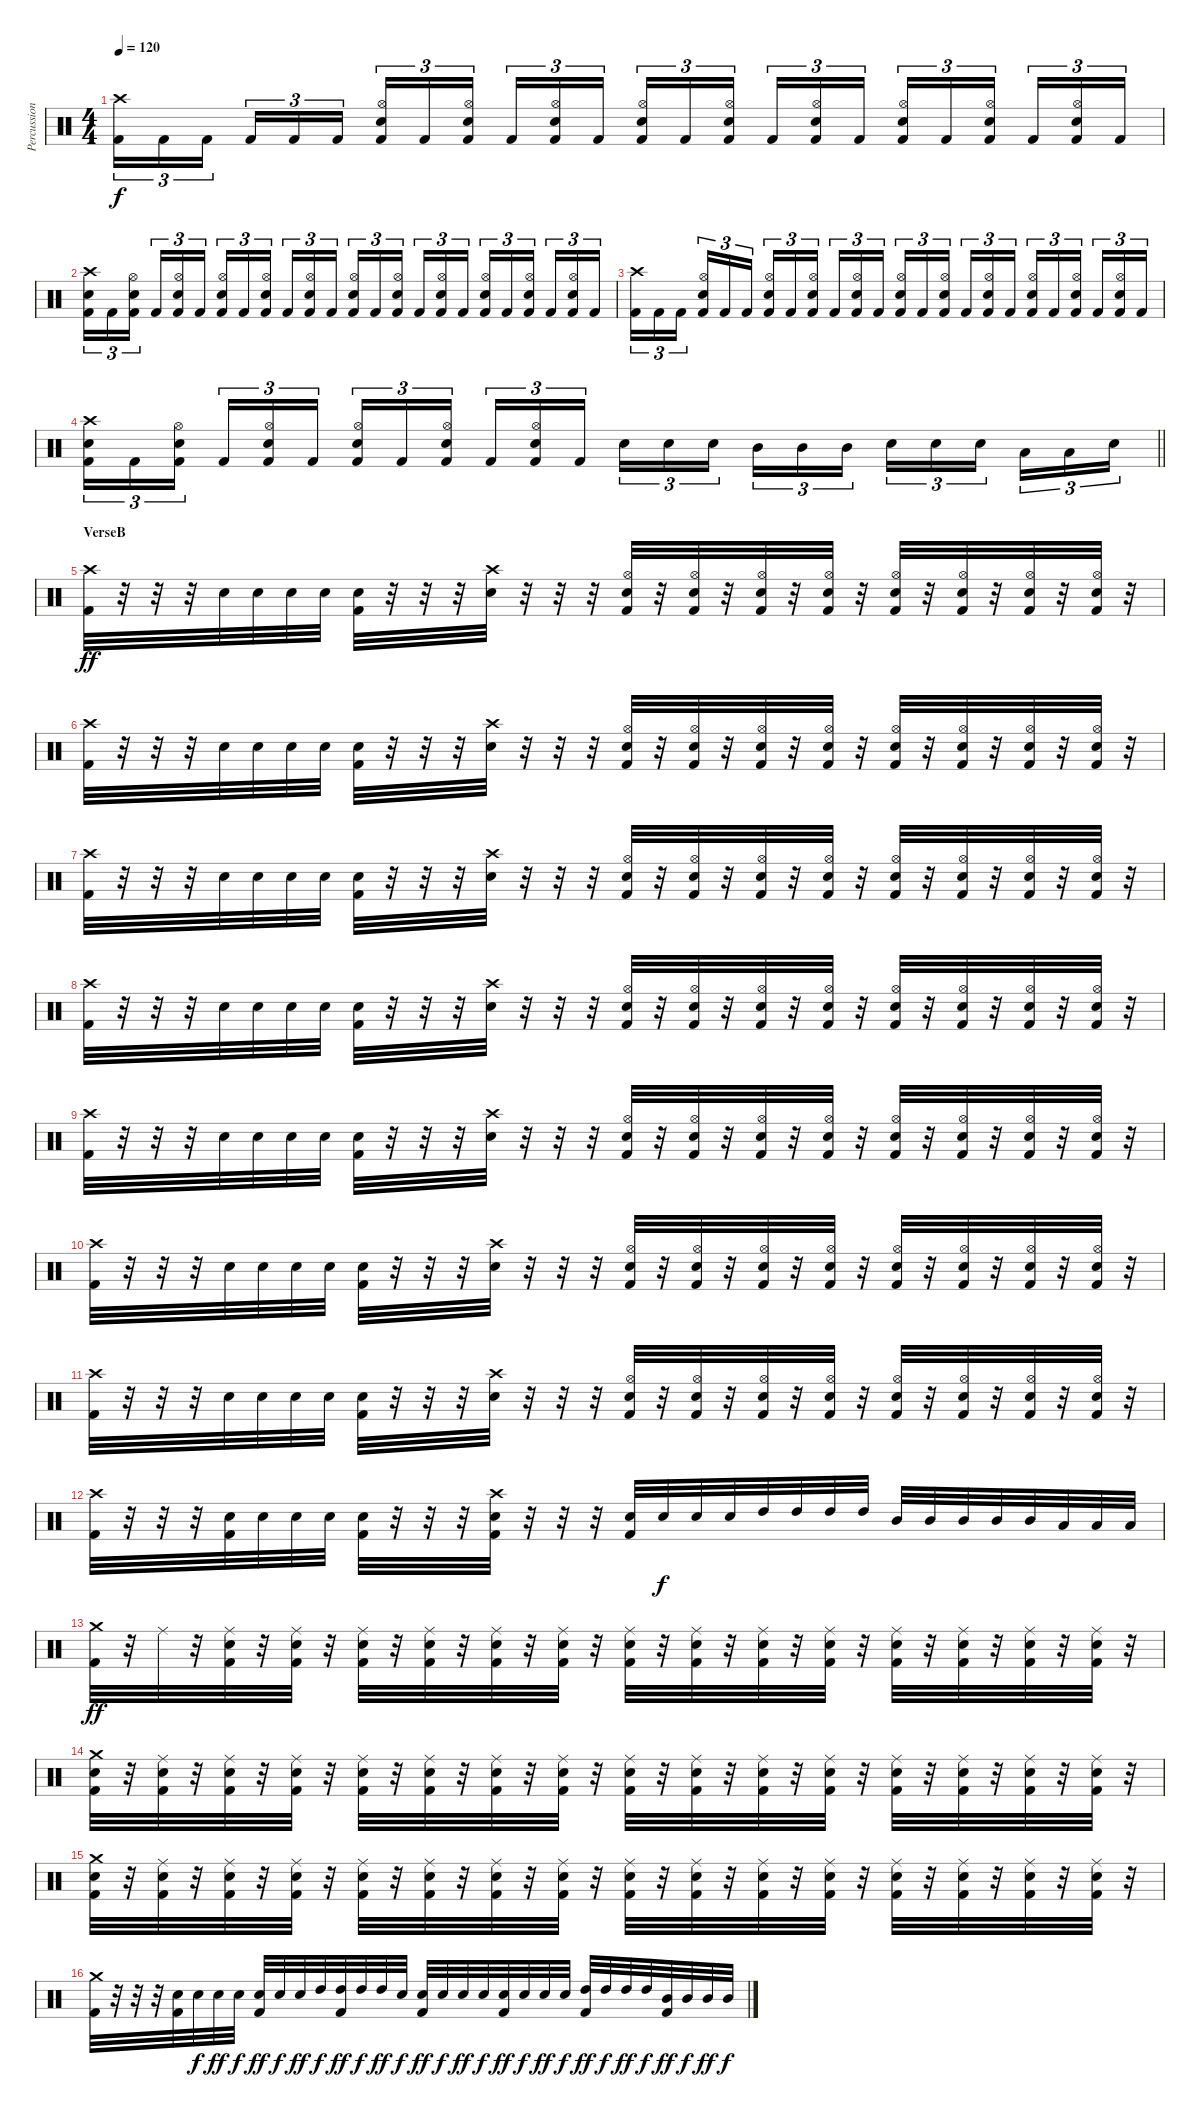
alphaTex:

\track ("Percussion" "Percussion") {instrument percussion}
\staff {score}
\articulation defaults
\ts (4 4)
\tempo 120
\clef neutral
\ks c
("Crash high (hit)" "Kick (hit) 2").16{tu (3 2) dy f} "Kick (hit) 2".16{tu (3 2)} "Kick (hit) 2".16{tu (3 2) beam splitsecondary} "Kick (hit) 2".16{tu (3 2)} "Kick (hit) 2".16{tu (3 2)} "Kick (hit) 2".16{tu (3 2)} ("Hi-Hat (open)" "Snare (hit) 2" "Kick (hit) 2").16{tu (3 2)} "Kick (hit) 2".16{tu (3 2)} ("Hi-Hat (open)" "Snare (hit) 2" "Kick (hit) 2").16{tu (3 2) beam splitsecondary} "Kick (hit) 2".16{tu (3 2)} ("Hi-Hat (open)" "Snare (hit) 2" "Kick (hit) 2").16{tu (3 2)} "Kick (hit) 2".16{tu (3 2)} ("Hi-Hat (open)" "Snare (hit) 2" "Kick (hit) 2").16{tu (3 2)} "Kick (hit) 2".16{tu (3 2)} ("Hi-Hat (open)" "Snare (hit) 2" "Kick (hit) 2").16{tu (3 2) beam splitsecondary} "Kick (hit) 2".16{tu (3 2)} ("Hi-Hat (open)" "Snare (hit) 2" "Kick (hit) 2").16{tu (3 2)} "Kick (hit) 2".16{tu (3 2)} ("Hi-Hat (open)" "Snare (hit) 2" "Kick (hit) 2").16{tu (3 2)} "Kick (hit) 2".16{tu (3 2)} ("Hi-Hat (open)" "Snare (hit) 2" "Kick (hit) 2").16{tu (3 2) beam splitsecondary} "Kick (hit) 2".16{tu (3 2)} ("Hi-Hat (open)" "Snare (hit) 2" "Kick (hit) 2").16{tu (3 2)} "Kick (hit) 2".16{tu (3 2)} |
("Crash high (hit)" "Snare (hit) 2" "Kick (hit) 2").16{tu (3 2)} "Kick (hit) 2".16{tu (3 2)} ("Hi-Hat (open)" "Snare (hit) 2" "Kick (hit) 2").16{tu (3 2) beam splitsecondary} "Kick (hit) 2".16{tu (3 2)} ("Hi-Hat (open)" "Snare (hit) 2" "Kick (hit) 2").16{tu (3 2)} "Kick (hit) 2".16{tu (3 2)} ("Hi-Hat (open)" "Snare (hit) 2" "Kick (hit) 2").16{tu (3 2)} "Kick (hit) 2".16{tu (3 2)} ("Hi-Hat (open)" "Snare (hit) 2" "Kick (hit) 2").16{tu (3 2) beam splitsecondary} "Kick (hit) 2".16{tu (3 2)} ("Hi-Hat (open)" "Snare (hit) 2" "Kick (hit) 2").16{tu (3 2)} "Kick (hit) 2".16{tu (3 2)} ("Hi-Hat (open)" "Snare (hit) 2" "Kick (hit) 2").16{tu (3 2)} "Kick (hit) 2".16{tu (3 2)} ("Hi-Hat (open)" "Snare (hit) 2" "Kick (hit) 2").16{tu (3 2) beam splitsecondary} "Kick (hit) 2".16{tu (3 2)} ("Hi-Hat (open)" "Snare (hit) 2" "Kick (hit) 2").16{tu (3 2)} "Kick (hit) 2".16{tu (3 2)} ("Hi-Hat (open)" "Snare (hit) 2" "Kick (hit) 2").16{tu (3 2)} "Kick (hit) 2".16{tu (3 2)} ("Hi-Hat (open)" "Snare (hit) 2" "Kick (hit) 2").16{tu (3 2) beam splitsecondary} "Kick (hit) 2".16{tu (3 2)} ("Hi-Hat (open)" "Snare (hit) 2" "Kick (hit) 2").16{tu (3 2)} "Kick (hit) 2".16{tu (3 2)} |
("Crash high (hit)" "Kick (hit) 2").16{tu (3 2)} "Kick (hit) 2".16{tu (3 2)} "Kick (hit) 2".16{tu (3 2) beam splitsecondary} ("Hi-Hat (open)" "Snare (hit) 2" "Kick (hit) 2").16{tu (3 2)} "Kick (hit) 2".16{tu (3 2)} "Kick (hit) 2".16{tu (3 2)} ("Hi-Hat (open)" "Snare (hit) 2" "Kick (hit) 2").16{tu (3 2)} "Kick (hit) 2".16{tu (3 2)} ("Hi-Hat (open)" "Snare (hit) 2" "Kick (hit) 2").16{tu (3 2) beam splitsecondary} "Kick (hit) 2".16{tu (3 2)} ("Hi-Hat (open)" "Snare (hit) 2" "Kick (hit) 2").16{tu (3 2)} "Kick (hit) 2".16{tu (3 2)} ("Hi-Hat (open)" "Snare (hit) 2" "Kick (hit) 2").16{tu (3 2)} "Kick (hit) 2".16{tu (3 2)} ("Hi-Hat (open)" "Snare (hit) 2" "Kick (hit) 2").16{tu (3 2) beam splitsecondary} "Kick (hit) 2".16{tu (3 2)} ("Hi-Hat (open)" "Snare (hit) 2" "Kick (hit) 2").16{tu (3 2)} "Kick (hit) 2".16{tu (3 2)} ("Hi-Hat (open)" "Snare (hit) 2" "Kick (hit) 2").16{tu (3 2)} "Kick (hit) 2".16{tu (3 2)} ("Hi-Hat (open)" "Snare (hit) 2" "Kick (hit) 2").16{tu (3 2) beam splitsecondary} "Kick (hit) 2".16{tu (3 2)} ("Hi-Hat (open)" "Snare (hit) 2" "Kick (hit) 2").16{tu (3 2)} "Kick (hit) 2".16{tu (3 2)} |
\barLineRight lightlight
("Crash high (hit)" "Snare (hit) 2" "Kick (hit) 2").16{tu (3 2)} "Kick (hit) 2".16{tu (3 2)} ("Hi-Hat (open)" "Snare (hit) 2" "Kick (hit) 2").16{tu (3 2) beam splitsecondary} "Kick (hit) 2".16{tu (3 2)} ("Hi-Hat (open)" "Snare (hit) 2" "Kick (hit) 2").16{tu (3 2)} "Kick (hit) 2".16{tu (3 2)} ("Hi-Hat (open)" "Snare (hit) 2" "Kick (hit) 2").16{tu (3 2)} "Kick (hit) 2".16{tu (3 2)} ("Hi-Hat (open)" "Snare (hit) 2" "Kick (hit) 2").16{tu (3 2) beam splitsecondary} "Kick (hit) 2".16{tu (3 2)} ("Hi-Hat (open)" "Snare (hit) 2" "Kick (hit) 2").16{tu (3 2)} "Kick (hit) 2".16{tu (3 2)} "Snare (hit) 2".16{tu (3 2)} "Snare (hit) 2".16{tu (3 2)} "Snare (hit) 2".16{tu (3 2) beam splitsecondary} "Mid Tom (hit)".16{tu (3 2)} "Mid Tom (hit)".16{tu (3 2)} "Mid Tom (hit)".16{tu (3 2)} "Snare (hit) 2".16{tu (3 2)} "Snare (hit) 2".16{tu (3 2)} "Snare (hit) 2".16{tu (3 2) beam splitsecondary} "Low Tom (hit)".16{tu (3 2)} "Low Tom (hit)".16{tu (3 2)} "Snare (hit) 2".16{tu (3 2)} |
\section ("" "VerseB")
("Crash high (hit)" "Kick (hit) 2").32{dy ff} r.32 r.32 r.32 "Snare (hit) 2".32 "Snare (hit) 2".32 "Snare (hit) 2".32 "Snare (hit) 2".32 ("Snare (hit) 2" "Kick (hit) 2").32 r.32 r.32 r.32 ("Crash high (hit)" "Snare (hit) 2").32 r.32 r.32 r.32 ("Hi-Hat (open)" "Snare (hit) 2" "Kick (hit) 2").32 r.32 ("Hi-Hat (open)" "Snare (hit) 2" "Kick (hit) 2").32 r.32 ("Hi-Hat (open)" "Snare (hit) 2" "Kick (hit) 2").32 r.32 ("Hi-Hat (open)" "Snare (hit) 2" "Kick (hit) 2").32 r.32 ("Hi-Hat (open)" "Snare (hit) 2" "Kick (hit) 2").32 r.32 ("Hi-Hat (open)" "Snare (hit) 2" "Kick (hit) 2").32 r.32 ("Hi-Hat (open)" "Snare (hit) 2" "Kick (hit) 2").32 r.32 ("Hi-Hat (open)" "Snare (hit) 2" "Kick (hit) 2").32 r.32 |
("Crash high (hit)" "Kick (hit) 2").32 r.32 r.32 r.32 "Snare (hit) 2".32 "Snare (hit) 2".32 "Snare (hit) 2".32 "Snare (hit) 2".32 ("Snare (hit) 2" "Kick (hit) 2").32 r.32 r.32 r.32 ("Crash high (hit)" "Snare (hit) 2").32 r.32 r.32 r.32 ("Hi-Hat (open)" "Snare (hit) 2" "Kick (hit) 2").32 r.32 ("Hi-Hat (open)" "Snare (hit) 2" "Kick (hit) 2").32 r.32 ("Hi-Hat (open)" "Snare (hit) 2" "Kick (hit) 2").32 r.32 ("Hi-Hat (open)" "Snare (hit) 2" "Kick (hit) 2").32 r.32 ("Hi-Hat (open)" "Snare (hit) 2" "Kick (hit) 2").32 r.32 ("Hi-Hat (open)" "Snare (hit) 2" "Kick (hit) 2").32 r.32 ("Hi-Hat (open)" "Snare (hit) 2" "Kick (hit) 2").32 r.32 ("Hi-Hat (open)" "Snare (hit) 2" "Kick (hit) 2").32 r.32 |
("Crash high (hit)" "Kick (hit) 2").32 r.32 r.32 r.32 "Snare (hit) 2".32 "Snare (hit) 2".32 "Snare (hit) 2".32 "Snare (hit) 2".32 ("Snare (hit) 2" "Kick (hit) 2").32 r.32 r.32 r.32 ("Crash high (hit)" "Snare (hit) 2").32 r.32 r.32 r.32 ("Hi-Hat (open)" "Snare (hit) 2" "Kick (hit) 2").32 r.32 ("Hi-Hat (open)" "Snare (hit) 2" "Kick (hit) 2").32 r.32 ("Hi-Hat (open)" "Snare (hit) 2" "Kick (hit) 2").32 r.32 ("Hi-Hat (open)" "Snare (hit) 2" "Kick (hit) 2").32 r.32 ("Hi-Hat (open)" "Snare (hit) 2" "Kick (hit) 2").32 r.32 ("Hi-Hat (open)" "Snare (hit) 2" "Kick (hit) 2").32 r.32 ("Hi-Hat (open)" "Snare (hit) 2" "Kick (hit) 2").32 r.32 ("Hi-Hat (open)" "Snare (hit) 2" "Kick (hit) 2").32 r.32 |
("Crash high (hit)" "Kick (hit) 2").32 r.32 r.32 r.32 "Snare (hit) 2".32 "Snare (hit) 2".32 "Snare (hit) 2".32 "Snare (hit) 2".32 ("Snare (hit) 2" "Kick (hit) 2").32 r.32 r.32 r.32 ("Crash high (hit)" "Snare (hit) 2").32 r.32 r.32 r.32 ("Hi-Hat (open)" "Snare (hit) 2" "Kick (hit) 2").32 r.32 ("Hi-Hat (open)" "Snare (hit) 2" "Kick (hit) 2").32 r.32 ("Hi-Hat (open)" "Snare (hit) 2" "Kick (hit) 2").32 r.32 ("Hi-Hat (open)" "Snare (hit) 2" "Kick (hit) 2").32 r.32 ("Hi-Hat (open)" "Snare (hit) 2" "Kick (hit) 2").32 r.32 ("Hi-Hat (open)" "Snare (hit) 2" "Kick (hit) 2").32 r.32 ("Hi-Hat (open)" "Snare (hit) 2" "Kick (hit) 2").32 r.32 ("Hi-Hat (open)" "Snare (hit) 2" "Kick (hit) 2").32 r.32 |
("Crash high (hit)" "Kick (hit) 2").32 r.32 r.32 r.32 "Snare (hit) 2".32 "Snare (hit) 2".32 "Snare (hit) 2".32 "Snare (hit) 2".32 ("Snare (hit) 2" "Kick (hit) 2").32 r.32 r.32 r.32 ("Crash high (hit)" "Snare (hit) 2").32 r.32 r.32 r.32 ("Hi-Hat (open)" "Snare (hit) 2" "Kick (hit) 2").32 r.32 ("Hi-Hat (open)" "Snare (hit) 2" "Kick (hit) 2").32 r.32 ("Hi-Hat (open)" "Snare (hit) 2" "Kick (hit) 2").32 r.32 ("Hi-Hat (open)" "Snare (hit) 2" "Kick (hit) 2").32 r.32 ("Hi-Hat (open)" "Snare (hit) 2" "Kick (hit) 2").32 r.32 ("Hi-Hat (open)" "Snare (hit) 2" "Kick (hit) 2").32 r.32 ("Hi-Hat (open)" "Snare (hit) 2" "Kick (hit) 2").32 r.32 ("Hi-Hat (open)" "Snare (hit) 2" "Kick (hit) 2").32 r.32 |
("Crash high (hit)" "Kick (hit) 2").32 r.32 r.32 r.32 "Snare (hit) 2".32 "Snare (hit) 2".32 "Snare (hit) 2".32 "Snare (hit) 2".32 ("Snare (hit) 2" "Kick (hit) 2").32 r.32 r.32 r.32 ("Crash high (hit)" "Snare (hit) 2").32 r.32 r.32 r.32 ("Hi-Hat (open)" "Snare (hit) 2" "Kick (hit) 2").32 r.32 ("Hi-Hat (open)" "Snare (hit) 2" "Kick (hit) 2").32 r.32 ("Hi-Hat (open)" "Snare (hit) 2" "Kick (hit) 2").32 r.32 ("Hi-Hat (open)" "Snare (hit) 2" "Kick (hit) 2").32 r.32 ("Hi-Hat (open)" "Snare (hit) 2" "Kick (hit) 2").32 r.32 ("Hi-Hat (open)" "Snare (hit) 2" "Kick (hit) 2").32 r.32 ("Hi-Hat (open)" "Snare (hit) 2" "Kick (hit) 2").32 r.32 ("Hi-Hat (open)" "Snare (hit) 2" "Kick (hit) 2").32 r.32 |
("Crash high (hit)" "Kick (hit) 2").32 r.32 r.32 r.32 "Snare (hit) 2".32 "Snare (hit) 2".32 "Snare (hit) 2".32 "Snare (hit) 2".32 ("Snare (hit) 2" "Kick (hit) 2").32 r.32 r.32 r.32 ("Crash high (hit)" "Snare (hit) 2").32 r.32 r.32 r.32 ("Hi-Hat (open)" "Snare (hit) 2" "Kick (hit) 2").32 r.32 ("Hi-Hat (open)" "Snare (hit) 2" "Kick (hit) 2").32 r.32 ("Hi-Hat (open)" "Snare (hit) 2" "Kick (hit) 2").32 r.32 ("Hi-Hat (open)" "Snare (hit) 2" "Kick (hit) 2").32 r.32 ("Hi-Hat (open)" "Snare (hit) 2" "Kick (hit) 2").32 r.32 ("Hi-Hat (open)" "Snare (hit) 2" "Kick (hit) 2").32 r.32 ("Hi-Hat (open)" "Snare (hit) 2" "Kick (hit) 2").32 r.32 ("Hi-Hat (open)" "Snare (hit) 2" "Kick (hit) 2").32 r.32 |
("Crash high (hit)" "Kick (hit) 2").32 r.32 r.32 r.32 ("Snare (hit) 2" "Kick (hit) 2").32 "Snare (hit) 2".32 "Snare (hit) 2".32 "Snare (hit) 2".32 ("Snare (hit) 2" "Kick (hit) 2").32 r.32 r.32 r.32 ("Crash high (hit)" "Snare (hit) 2" "Kick (hit) 2").32 r.32 r.32 r.32 ("Snare (hit) 2" "Kick (hit) 2").32 "Snare (hit) 2".32{dy f} "Snare (hit) 2".32 "Snare (hit) 2".32 "High Tom (hit)".32 "High Tom (hit)".32 "High Tom (hit)".32 "High Tom (hit)".32 "Mid Tom (hit)".32 "Mid Tom (hit)".32 "Mid Tom (hit)".32 "Mid Tom (hit)".32 "Mid Tom (hit)".32 "Low Tom (hit)".32 "Low Tom (hit)".32 "Low Tom (hit)".32 |
("Crash medium (hit)" "Kick (hit) 2").32{dy ff} r.32 "Ride (middle)".32 r.32 ("Ride (middle)" "Snare (hit) 2" "Kick (hit) 2").32 r.32 ("Ride (middle)" "Snare (hit) 2" "Kick (hit) 2").32 r.32 ("Ride (middle)" "Snare (hit) 2" "Kick (hit) 2").32 r.32 ("Ride (middle)" "Snare (hit) 2" "Kick (hit) 2").32 r.32 ("Ride (middle)" "Snare (hit) 2" "Kick (hit) 2").32 r.32 ("Ride (middle)" "Snare (hit) 2" "Kick (hit) 2").32 r.32 ("Ride (middle)" "Snare (hit) 2" "Kick (hit) 2").32 r.32 ("Ride (middle)" "Snare (hit) 2" "Kick (hit) 2").32 r.32 ("Ride (middle)" "Snare (hit) 2" "Kick (hit) 2").32 r.32 ("Ride (middle)" "Snare (hit) 2" "Kick (hit) 2").32 r.32 ("Ride (middle)" "Snare (hit) 2" "Kick (hit) 2").32 r.32 ("Ride (middle)" "Snare (hit) 2" "Kick (hit) 2").32 r.32 ("Ride (middle)" "Snare (hit) 2" "Kick (hit) 2").32 r.32 ("Ride (middle)" "Snare (hit) 2" "Kick (hit) 2").32 r.32 |
("Crash medium (hit)" "Snare (hit) 2" "Kick (hit) 2").32 r.32 ("Ride (middle)" "Snare (hit) 2" "Kick (hit) 2").32 r.32 ("Ride (middle)" "Snare (hit) 2" "Kick (hit) 2").32 r.32 ("Ride (middle)" "Snare (hit) 2" "Kick (hit) 2").32 r.32 ("Ride (middle)" "Snare (hit) 2" "Kick (hit) 2").32 r.32 ("Ride (middle)" "Snare (hit) 2" "Kick (hit) 2").32 r.32 ("Ride (middle)" "Snare (hit) 2" "Kick (hit) 2").32 r.32 ("Ride (middle)" "Snare (hit) 2" "Kick (hit) 2").32 r.32 ("Ride (middle)" "Snare (hit) 2" "Kick (hit) 2").32 r.32 ("Ride (middle)" "Snare (hit) 2" "Kick (hit) 2").32 r.32 ("Ride (middle)" "Snare (hit) 2" "Kick (hit) 2").32 r.32 ("Ride (middle)" "Snare (hit) 2" "Kick (hit) 2").32 r.32 ("Ride (middle)" "Snare (hit) 2" "Kick (hit) 2").32 r.32 ("Ride (middle)" "Snare (hit) 2" "Kick (hit) 2").32 r.32 ("Ride (middle)" "Snare (hit) 2" "Kick (hit) 2").32 r.32 ("Ride (middle)" "Snare (hit) 2" "Kick (hit) 2").32 r.32 |
("Crash medium (hit)" "Snare (hit) 2" "Kick (hit) 2").32 r.32 ("Ride (middle)" "Snare (hit) 2" "Kick (hit) 2").32 r.32 ("Ride (middle)" "Snare (hit) 2" "Kick (hit) 2").32 r.32 ("Ride (middle)" "Snare (hit) 2" "Kick (hit) 2").32 r.32 ("Ride (middle)" "Snare (hit) 2" "Kick (hit) 2").32 r.32 ("Ride (middle)" "Snare (hit) 2" "Kick (hit) 2").32 r.32 ("Ride (middle)" "Snare (hit) 2" "Kick (hit) 2").32 r.32 ("Ride (middle)" "Snare (hit) 2" "Kick (hit) 2").32 r.32 ("Ride (middle)" "Snare (hit) 2" "Kick (hit) 2").32 r.32 ("Ride (middle)" "Snare (hit) 2" "Kick (hit) 2").32 r.32 ("Ride (middle)" "Snare (hit) 2" "Kick (hit) 2").32 r.32 ("Ride (middle)" "Snare (hit) 2" "Kick (hit) 2").32 r.32 ("Ride (middle)" "Snare (hit) 2" "Kick (hit) 2").32 r.32 ("Ride (middle)" "Snare (hit) 2" "Kick (hit) 2").32 r.32 ("Ride (middle)" "Snare (hit) 2" "Kick (hit) 2").32 r.32 ("Ride (middle)" "Snare (hit) 2" "Kick (hit) 2").32 r.32 |
("Crash medium (hit)" "Kick (hit) 2").32 r.32 r.32 r.32 ("Snare (hit) 2" "Kick (hit) 2").32 "Snare (hit) 2".32{dy f} "Snare (hit) 2".32{dy ff} "Snare (hit) 2".32{dy f} ("Snare (hit) 2" "Kick (hit) 2").32{dy ff} "Snare (hit) 2".32{dy f} "Snare (hit) 2".32{dy ff} "High Tom (hit)".32{dy f} ("High Tom (hit)" "Kick (hit) 2").32{dy ff} "High Tom (hit)".32{dy f} "High Tom (hit)".32{dy ff} "Snare (hit) 2".32{dy f} ("Snare (hit) 2" "Kick (hit) 2").32{dy ff} "Snare (hit) 2".32{dy f} "Snare (hit) 2".32{dy ff} "Snare (hit) 2".32{dy f} ("Snare (hit) 2" "Kick (hit) 2").32{dy ff} "Snare (hit) 2".32{dy f} "Snare (hit) 2".32{dy ff} "Snare (hit) 2".32{dy f} ("High Tom (hit)" "Kick (hit) 2").32{dy ff} "High Tom (hit)".32{dy f} "High Tom (hit)".32{dy ff} "High Tom (hit)".32{dy f} ("Mid Tom (hit)" "Kick (hit) 2").32{dy ff} "Mid Tom (hit)".32{dy f} "Mid Tom (hit)".32{dy ff} "Mid Tom (hit)".32{dy f}
